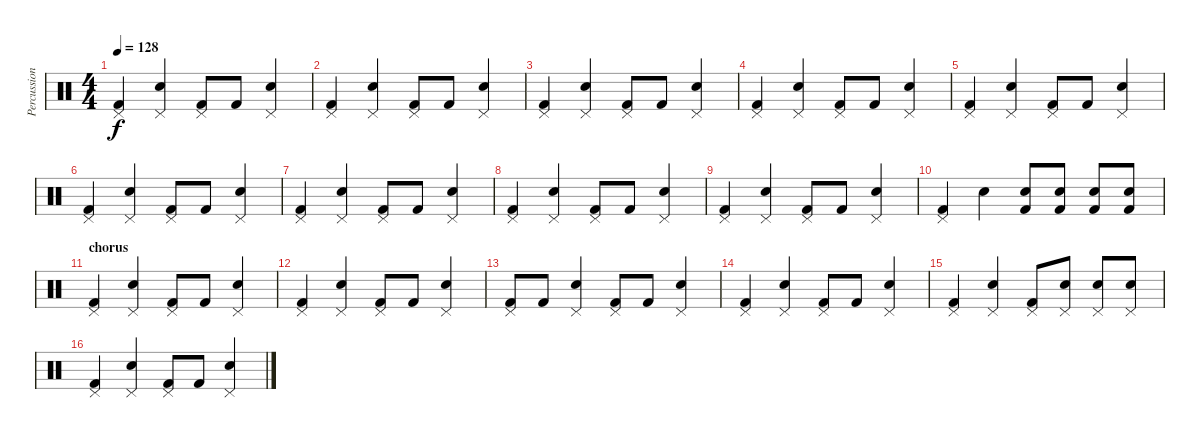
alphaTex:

\track ("Percussion" "Percussion") {instrument percussion}
\staff {score}
\articulation defaults
\ts (4 4)
\tempo 128
\clef neutral
\ks c
("Pedal Hi-Hat (hit)" "Kick (hit) 2").4{dy f} ("Pedal Hi-Hat (hit)" "Electric Snare (hit)").4 ("Pedal Hi-Hat (hit)" "Kick (hit) 2").8 "Kick (hit) 2".8 ("Pedal Hi-Hat (hit)" "Electric Snare (hit)").4 |
("Pedal Hi-Hat (hit)" "Kick (hit) 2").4 ("Pedal Hi-Hat (hit)" "Electric Snare (hit)").4 ("Pedal Hi-Hat (hit)" "Kick (hit) 2").8 "Kick (hit) 2".8 ("Pedal Hi-Hat (hit)" "Electric Snare (hit)").4 |
("Pedal Hi-Hat (hit)" "Kick (hit) 2").4 ("Pedal Hi-Hat (hit)" "Electric Snare (hit)").4 ("Pedal Hi-Hat (hit)" "Kick (hit) 2").8 "Kick (hit) 2".8 ("Pedal Hi-Hat (hit)" "Electric Snare (hit)").4 |
("Pedal Hi-Hat (hit)" "Kick (hit) 2").4 ("Pedal Hi-Hat (hit)" "Electric Snare (hit)").4 ("Pedal Hi-Hat (hit)" "Kick (hit) 2").8 "Kick (hit) 2".8 ("Pedal Hi-Hat (hit)" "Electric Snare (hit)").4 |
("Pedal Hi-Hat (hit)" "Kick (hit) 2").4 ("Pedal Hi-Hat (hit)" "Electric Snare (hit)").4 ("Pedal Hi-Hat (hit)" "Kick (hit) 2").8 "Kick (hit) 2".8 ("Pedal Hi-Hat (hit)" "Electric Snare (hit)").4 |
("Pedal Hi-Hat (hit)" "Kick (hit) 2").4 ("Pedal Hi-Hat (hit)" "Electric Snare (hit)").4 ("Pedal Hi-Hat (hit)" "Kick (hit) 2").8 "Kick (hit) 2".8 ("Pedal Hi-Hat (hit)" "Electric Snare (hit)").4 |
("Pedal Hi-Hat (hit)" "Kick (hit) 2").4 ("Pedal Hi-Hat (hit)" "Electric Snare (hit)").4 ("Pedal Hi-Hat (hit)" "Kick (hit) 2").8 "Kick (hit) 2".8 ("Pedal Hi-Hat (hit)" "Electric Snare (hit)").4 |
("Pedal Hi-Hat (hit)" "Kick (hit) 2").4 ("Pedal Hi-Hat (hit)" "Electric Snare (hit)").4 ("Pedal Hi-Hat (hit)" "Kick (hit) 2").8 "Kick (hit) 2".8 ("Pedal Hi-Hat (hit)" "Electric Snare (hit)").4 |
("Pedal Hi-Hat (hit)" "Kick (hit) 2").4 ("Pedal Hi-Hat (hit)" "Electric Snare (hit)").4 ("Pedal Hi-Hat (hit)" "Kick (hit) 2").8 "Kick (hit) 2".8 ("Pedal Hi-Hat (hit)" "Electric Snare (hit)").4 |
("Pedal Hi-Hat (hit)" "Kick (hit) 2").4 "Electric Snare (hit)".4 ("Electric Snare (hit)" "Kick (hit) 2").8 ("Electric Snare (hit)" "Kick (hit) 2").8 ("Electric Snare (hit)" "Kick (hit) 2").8 ("Electric Snare (hit)" "Kick (hit) 2").8 |
\section ("" "chorus")
("Pedal Hi-Hat (hit)" "Kick (hit) 2").4 ("Pedal Hi-Hat (hit)" "Electric Snare (hit)").4 ("Pedal Hi-Hat (hit)" "Kick (hit) 2").8 "Kick (hit) 2".8 ("Pedal Hi-Hat (hit)" "Electric Snare (hit)").4 |
("Pedal Hi-Hat (hit)" "Kick (hit) 2").4 ("Pedal Hi-Hat (hit)" "Electric Snare (hit)").4 ("Pedal Hi-Hat (hit)" "Kick (hit) 2").8 "Kick (hit) 2".8 ("Pedal Hi-Hat (hit)" "Electric Snare (hit)").4 |
("Pedal Hi-Hat (hit)" "Kick (hit) 2").8 "Kick (hit) 2".8 ("Pedal Hi-Hat (hit)" "Electric Snare (hit)").4 ("Pedal Hi-Hat (hit)" "Kick (hit) 2").8 "Kick (hit) 2".8 ("Pedal Hi-Hat (hit)" "Electric Snare (hit)").4 |
("Pedal Hi-Hat (hit)" "Kick (hit) 2").4 ("Pedal Hi-Hat (hit)" "Electric Snare (hit)").4 ("Pedal Hi-Hat (hit)" "Kick (hit) 2").8 "Kick (hit) 2".8 ("Pedal Hi-Hat (hit)" "Electric Snare (hit)").4 |
("Pedal Hi-Hat (hit)" "Kick (hit) 2").4 ("Pedal Hi-Hat (hit)" "Electric Snare (hit)").4 ("Pedal Hi-Hat (hit)" "Kick (hit) 2").8 ("Pedal Hi-Hat (hit)" "Electric Snare (hit)").8 ("Pedal Hi-Hat (hit)" "Electric Snare (hit)").8 ("Pedal Hi-Hat (hit)" "Electric Snare (hit)").8 |
("Pedal Hi-Hat (hit)" "Kick (hit) 2").4 ("Pedal Hi-Hat (hit)" "Electric Snare (hit)").4 ("Pedal Hi-Hat (hit)" "Kick (hit) 2").8 "Kick (hit) 2".8 ("Pedal Hi-Hat (hit)" "Electric Snare (hit)").4
